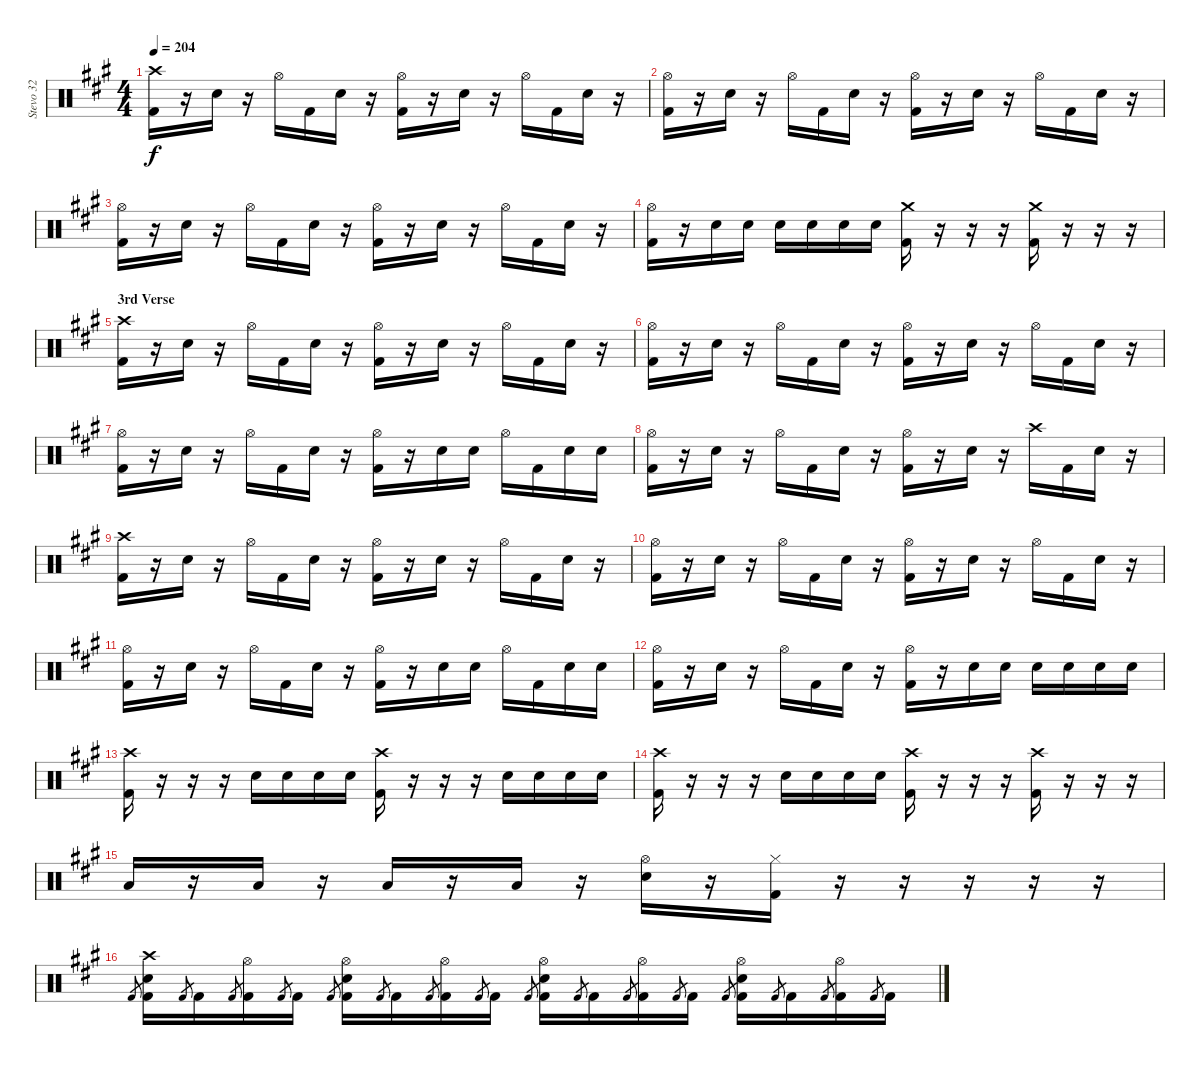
\track ("Stevo 32" "Stevo 32") {instrument percussion}
\staff {score}
\articulation defaults
\ts (4 4)
\tempo 204
\clef neutral
\ks a
("Crash high (hit)" "Kick (hit) 2").16{dy f} r.16 "Snare (hit) 2".16 r.16 "Hi-Hat (open)".16 "Kick (hit) 2".16 "Snare (hit) 2".16 r.16 ("Hi-Hat (open)" "Kick (hit) 2").16 r.16 "Snare (hit) 2".16 r.16 "Hi-Hat (open)".16 "Kick (hit) 2".16 "Snare (hit) 2".16 r.16 |
("Hi-Hat (open)" "Kick (hit) 2").16 r.16 "Snare (hit) 2".16 r.16 "Hi-Hat (open)".16 "Kick (hit) 2".16 "Snare (hit) 2".16 r.16 ("Hi-Hat (open)" "Kick (hit) 2").16 r.16 "Snare (hit) 2".16 r.16 "Hi-Hat (open)".16 "Kick (hit) 2".16 "Snare (hit) 2".16 r.16 |
("Hi-Hat (open)" "Kick (hit) 2").16 r.16 "Snare (hit) 2".16 r.16 "Hi-Hat (open)".16 "Kick (hit) 2".16 "Snare (hit) 2".16 r.16 ("Hi-Hat (open)" "Kick (hit) 2").16 r.16 "Snare (hit) 2".16 r.16 "Hi-Hat (open)".16 "Kick (hit) 2".16 "Snare (hit) 2".16 r.16 |
("Hi-Hat (open)" "Kick (hit) 2").16 r.16 "Snare (hit) 2".16 "Snare (hit) 2".16 "Snare (hit) 2".16 "Snare (hit) 2".16 "Snare (hit) 2".16 "Snare (hit) 2".16 ("Crash medium (hit)" "Kick (hit) 2").16 r.16 r.16 r.16 ("Crash medium (hit)" "Kick (hit) 2").16 r.16 r.16 r.16 |
\section ("" "3rd Verse")
("Crash high (hit)" "Kick (hit) 2").16 r.16 "Snare (hit) 2".16 r.16 "Hi-Hat (open)".16 "Kick (hit) 2".16 "Snare (hit) 2".16 r.16 ("Hi-Hat (open)" "Kick (hit) 2").16 r.16 "Snare (hit) 2".16 r.16 "Hi-Hat (open)".16 "Kick (hit) 2".16 "Snare (hit) 2".16 r.16 |
("Hi-Hat (open)" "Kick (hit) 2").16 r.16 "Snare (hit) 2".16 r.16 "Hi-Hat (open)".16 "Kick (hit) 2".16 "Snare (hit) 2".16 r.16 ("Hi-Hat (open)" "Kick (hit) 2").16 r.16 "Snare (hit) 2".16 r.16 "Hi-Hat (open)".16 "Kick (hit) 2".16 "Snare (hit) 2".16 r.16 |
("Hi-Hat (open)" "Kick (hit) 2").16 r.16 "Snare (hit) 2".16 r.16 "Hi-Hat (open)".16 "Kick (hit) 2".16 "Snare (hit) 2".16 r.16 ("Hi-Hat (open)" "Kick (hit) 2").16 r.16 "Snare (hit) 2".16 "Snare (hit) 2".16 "Hi-Hat (open)".16 "Kick (hit) 2".16 "Snare (hit) 2".16 "Snare (hit) 2".16 |
("Hi-Hat (open)" "Kick (hit) 2").16 r.16 "Snare (hit) 2".16 r.16 "Hi-Hat (open)".16 "Kick (hit) 2".16 "Snare (hit) 2".16 r.16 ("Hi-Hat (open)" "Kick (hit) 2").16 r.16 "Snare (hit) 2".16 r.16 "Crash high (hit)".16 "Kick (hit) 2".16 "Snare (hit) 2".16 r.16 |
("Crash high (hit)" "Kick (hit) 2").16 r.16 "Snare (hit) 2".16 r.16 "Hi-Hat (open)".16 "Kick (hit) 2".16 "Snare (hit) 2".16 r.16 ("Hi-Hat (open)" "Kick (hit) 2").16 r.16 "Snare (hit) 2".16 r.16 "Hi-Hat (open)".16 "Kick (hit) 2".16 "Snare (hit) 2".16 r.16 |
("Hi-Hat (open)" "Kick (hit) 2").16 r.16 "Snare (hit) 2".16 r.16 "Hi-Hat (open)".16 "Kick (hit) 2".16 "Snare (hit) 2".16 r.16 ("Hi-Hat (open)" "Kick (hit) 2").16 r.16 "Snare (hit) 2".16 r.16 "Hi-Hat (open)".16 "Kick (hit) 2".16 "Snare (hit) 2".16 r.16 |
("Hi-Hat (open)" "Kick (hit) 2").16 r.16 "Snare (hit) 2".16 r.16 "Hi-Hat (open)".16 "Kick (hit) 2".16 "Snare (hit) 2".16 r.16 ("Hi-Hat (open)" "Kick (hit) 2").16 r.16 "Snare (hit) 2".16 "Snare (hit) 2".16 "Hi-Hat (open)".16 "Kick (hit) 2".16 "Snare (hit) 2".16 "Snare (hit) 2".16 |
("Hi-Hat (open)" "Kick (hit) 2").16 r.16 "Snare (hit) 2".16 r.16 "Hi-Hat (open)".16 "Kick (hit) 2".16 "Snare (hit) 2".16 r.16 ("Hi-Hat (open)" "Kick (hit) 2").16 r.16 "Snare (hit) 2".16 "Snare (hit) 2".16 "Snare (hit) 2".16 "Snare (hit) 2".16 "Snare (hit) 2".16 "Snare (hit) 2".16 |
("Crash high (hit)" "Kick (hit) 2").16 r.16 r.16 r.16 "Snare (hit) 2".16 "Snare (hit) 2".16 "Snare (hit) 2".16 "Snare (hit) 2".16 ("Crash high (hit)" "Kick (hit) 2").16 r.16 r.16 r.16 "Snare (hit) 2".16 "Snare (hit) 2".16 "Snare (hit) 2".16 "Snare (hit) 2".16 |
("Crash high (hit)" "Kick (hit) 2").16 r.16 r.16 r.16 "Snare (hit) 2".16 "Snare (hit) 2".16 "Snare (hit) 2".16 "Snare (hit) 2".16 ("Crash high (hit)" "Kick (hit) 2").16 r.16 r.16 r.16 ("Crash high (hit)" "Kick (hit) 2").16 r.16 r.16 r.16 |
"Low Floor Tom (hit)".16 r.16 "Low Floor Tom (hit)".16 r.16 "Low Floor Tom (hit)".16 r.16 "Low Floor Tom (hit)".16 r.16 ("Hi-Hat (open)" "Snare (hit) 2").16 r.16 ("Hi-Hat (closed)" "Kick (hit) 2").16 r.16 r.16 r.16 r.16 r.16 |
"Kick (hit) 2".8{gr} ("Crash high (hit)" "Snare (hit) 2" "Kick (hit) 2").16 "Kick (hit) 2".8{gr} "Kick (hit) 2".16 "Kick (hit) 2".8{gr} ("Hi-Hat (open)" "Kick (hit) 2").16 "Kick (hit) 2".8{gr} "Kick (hit) 2".16 "Kick (hit) 2".8{gr} ("Hi-Hat (open)" "Snare (hit) 2" "Kick (hit) 2").16 "Kick (hit) 2".8{gr} "Kick (hit) 2".16 "Kick (hit) 2".8{gr} ("Hi-Hat (open)" "Kick (hit) 2").16 "Kick (hit) 2".8{gr} "Kick (hit) 2".16 "Kick (hit) 2".8{gr} ("Hi-Hat (open)" "Snare (hit) 2" "Kick (hit) 2").16 "Kick (hit) 2".8{gr} "Kick (hit) 2".16 "Kick (hit) 2".8{gr} ("Hi-Hat (open)" "Kick (hit) 2").16 "Kick (hit) 2".8{gr} "Kick (hit) 2".16 "Kick (hit) 2".8{gr} ("Hi-Hat (open)" "Snare (hit) 2" "Kick (hit) 2").16 "Kick (hit) 2".8{gr} "Kick (hit) 2".16 "Kick (hit) 2".8{gr} ("Hi-Hat (open)" "Kick (hit) 2").16 "Kick (hit) 2".8{gr} "Kick (hit) 2".16
